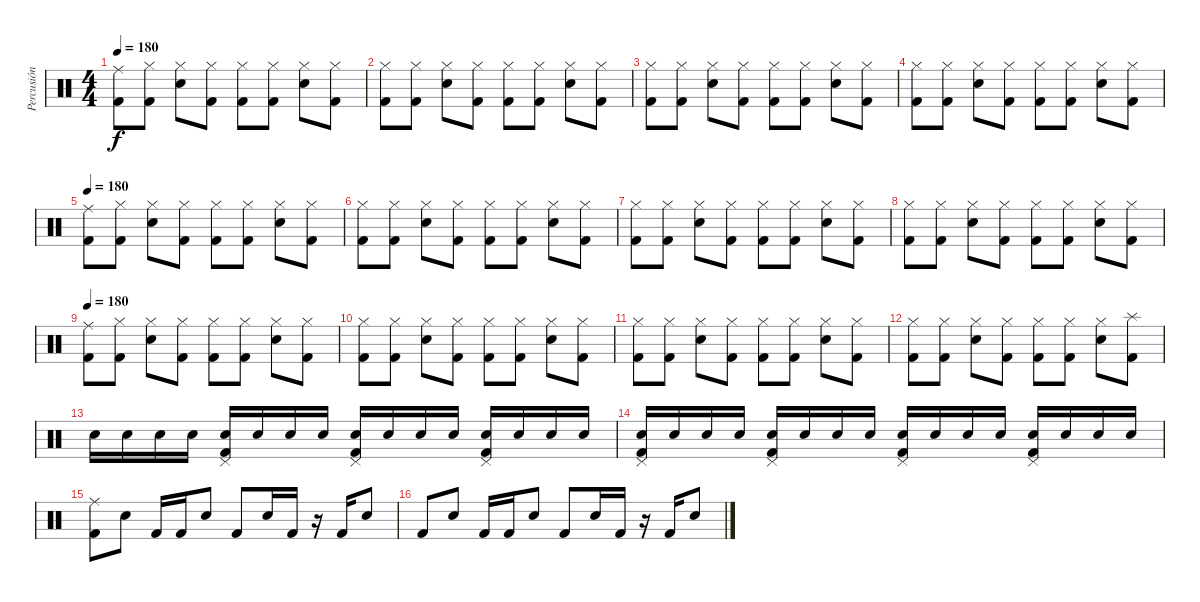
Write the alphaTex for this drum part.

\track ("Percusión" "Percusión") {instrument percussion}
\staff {score}
\articulation defaults
\ts (4 4)
\tempo 180
\clef neutral
\ks c
("Kick (hit) 2" "Ride (middle)").8{dy f} ("Kick (hit) 2" "Hi-Hat (closed)").8 ("Snare (hit) 2" "Hi-Hat (closed)").8 ("Kick (hit) 2" "Hi-Hat (closed)").8 ("Kick (hit) 2" "Hi-Hat (closed)").8 ("Kick (hit) 2" "Hi-Hat (closed)").8 ("Snare (hit) 2" "Hi-Hat (closed)").8 ("Kick (hit) 2" "Hi-Hat (closed)").8 |
("Kick (hit) 2" "Hi-Hat (closed)").8 ("Kick (hit) 2" "Hi-Hat (closed)").8 ("Snare (hit) 2" "Hi-Hat (closed)").8 ("Kick (hit) 2" "Hi-Hat (closed)").8 ("Kick (hit) 2" "Hi-Hat (closed)").8 ("Kick (hit) 2" "Hi-Hat (closed)").8 ("Snare (hit) 2" "Hi-Hat (closed)").8 ("Kick (hit) 2" "Hi-Hat (closed)").8 |
("Kick (hit) 2" "Hi-Hat (closed)").8 ("Kick (hit) 2" "Hi-Hat (closed)").8 ("Snare (hit) 2" "Hi-Hat (closed)").8 ("Kick (hit) 2" "Hi-Hat (closed)").8 ("Kick (hit) 2" "Hi-Hat (closed)").8 ("Kick (hit) 2" "Hi-Hat (closed)").8 ("Snare (hit) 2" "Hi-Hat (closed)").8 ("Kick (hit) 2" "Hi-Hat (closed)").8 |
("Kick (hit) 2" "Hi-Hat (closed)").8 ("Kick (hit) 2" "Hi-Hat (closed)").8 ("Snare (hit) 2" "Hi-Hat (closed)").8 ("Kick (hit) 2" "Hi-Hat (closed)").8 ("Kick (hit) 2" "Hi-Hat (closed)").8 ("Kick (hit) 2" "Hi-Hat (closed)").8 ("Snare (hit) 2" "Hi-Hat (closed)").8 ("Kick (hit) 2" "Hi-Hat (closed)").8 |
\tempo 180
("Kick (hit) 2" "Ride (middle)").8 ("Kick (hit) 2" "Hi-Hat (closed)").8 ("Snare (hit) 2" "Hi-Hat (closed)").8 ("Kick (hit) 2" "Hi-Hat (closed)").8 ("Kick (hit) 2" "Hi-Hat (closed)").8 ("Kick (hit) 2" "Hi-Hat (closed)").8 ("Snare (hit) 2" "Hi-Hat (closed)").8 ("Kick (hit) 2" "Hi-Hat (closed)").8 |
("Kick (hit) 2" "Hi-Hat (closed)").8 ("Kick (hit) 2" "Hi-Hat (closed)").8 ("Snare (hit) 2" "Hi-Hat (closed)").8 ("Kick (hit) 2" "Hi-Hat (closed)").8 ("Kick (hit) 2" "Hi-Hat (closed)").8 ("Kick (hit) 2" "Hi-Hat (closed)").8 ("Snare (hit) 2" "Hi-Hat (closed)").8 ("Kick (hit) 2" "Hi-Hat (closed)").8 |
("Kick (hit) 2" "Hi-Hat (closed)").8 ("Kick (hit) 2" "Hi-Hat (closed)").8 ("Snare (hit) 2" "Hi-Hat (closed)").8 ("Kick (hit) 2" "Hi-Hat (closed)").8 ("Kick (hit) 2" "Hi-Hat (closed)").8 ("Kick (hit) 2" "Hi-Hat (closed)").8 ("Snare (hit) 2" "Hi-Hat (closed)").8 ("Kick (hit) 2" "Hi-Hat (closed)").8 |
("Kick (hit) 2" "Hi-Hat (closed)").8 ("Kick (hit) 2" "Hi-Hat (closed)").8 ("Snare (hit) 2" "Hi-Hat (closed)").8 ("Kick (hit) 2" "Hi-Hat (closed)").8 ("Kick (hit) 2" "Hi-Hat (closed)").8 ("Kick (hit) 2" "Hi-Hat (closed)").8 ("Snare (hit) 2" "Hi-Hat (closed)").8 ("Kick (hit) 2" "Hi-Hat (closed)").8 |
\tempo 180
("Kick (hit) 2" "Ride (middle)").8 ("Kick (hit) 2" "Hi-Hat (closed)").8 ("Snare (hit) 2" "Hi-Hat (closed)").8 ("Kick (hit) 2" "Hi-Hat (closed)").8 ("Kick (hit) 2" "Hi-Hat (closed)").8 ("Kick (hit) 2" "Hi-Hat (closed)").8 ("Snare (hit) 2" "Hi-Hat (closed)").8 ("Kick (hit) 2" "Hi-Hat (closed)").8 |
("Kick (hit) 2" "Hi-Hat (closed)").8 ("Kick (hit) 2" "Hi-Hat (closed)").8 ("Snare (hit) 2" "Hi-Hat (closed)").8 ("Kick (hit) 2" "Hi-Hat (closed)").8 ("Kick (hit) 2" "Hi-Hat (closed)").8 ("Kick (hit) 2" "Hi-Hat (closed)").8 ("Snare (hit) 2" "Hi-Hat (closed)").8 ("Kick (hit) 2" "Hi-Hat (closed)").8 |
("Kick (hit) 2" "Hi-Hat (closed)").8 ("Kick (hit) 2" "Hi-Hat (closed)").8 ("Snare (hit) 2" "Hi-Hat (closed)").8 ("Kick (hit) 2" "Hi-Hat (closed)").8 ("Kick (hit) 2" "Hi-Hat (closed)").8 ("Kick (hit) 2" "Hi-Hat (closed)").8 ("Snare (hit) 2" "Hi-Hat (closed)").8 ("Kick (hit) 2" "Hi-Hat (closed)").8 |
("Kick (hit) 2" "Hi-Hat (closed)").8 ("Kick (hit) 2" "Hi-Hat (closed)").8 ("Snare (hit) 2" "Hi-Hat (closed)").8 ("Kick (hit) 2" "Hi-Hat (closed)").8 ("Kick (hit) 2" "Hi-Hat (closed)").8 ("Kick (hit) 2" "Hi-Hat (closed)").8 ("Snare (hit) 2" "Hi-Hat (closed)").8 ("Kick (hit) 2" "Splash (hit)").8 |
"Snare (hit) 2".16 "Snare (hit) 2".16 "Snare (hit) 2".16 "Snare (hit) 2".16 ("Snare (hit) 2" "Kick (hit) 2" "Pedal Hi-Hat (hit)").16 "Snare (hit) 2".16 "Snare (hit) 2".16 "Snare (hit) 2".16 ("Snare (hit) 2" "Kick (hit) 2" "Pedal Hi-Hat (hit)").16 "Snare (hit) 2".16 "Snare (hit) 2".16 "Snare (hit) 2".16 ("Snare (hit) 2" "Kick (hit) 2" "Pedal Hi-Hat (hit)").16 "Snare (hit) 2".16 "Snare (hit) 2".16 "Snare (hit) 2".16 |
("Snare (hit) 2" "Kick (hit) 2" "Pedal Hi-Hat (hit)").16 "Snare (hit) 2".16 "Snare (hit) 2".16 "Snare (hit) 2".16 ("Snare (hit) 2" "Kick (hit) 2" "Pedal Hi-Hat (hit)").16 "Snare (hit) 2".16 "Snare (hit) 2".16 "Snare (hit) 2".16 ("Snare (hit) 2" "Kick (hit) 2" "Pedal Hi-Hat (hit)").16 "Snare (hit) 2".16 "Snare (hit) 2".16 "Snare (hit) 2".16 ("Snare (hit) 2" "Kick (hit) 2" "Pedal Hi-Hat (hit)").16 "Snare (hit) 2".16 "Snare (hit) 2".16 "Snare (hit) 2".16 |
("Ride (middle)" "Kick (hit) 2").8 "Snare (hit) 2".8 "Kick (hit) 2".16 "Kick (hit) 2".16 "Snare (hit) 2".8 "Kick (hit) 2".8 "Snare (hit) 2".16 "Kick (hit) 2".16 r.16 "Kick (hit) 2".16 "Snare (hit) 2".8 |
"Kick (hit) 2".8 "Snare (hit) 2".8 "Kick (hit) 2".16 "Kick (hit) 2".16 "Snare (hit) 2".8 "Kick (hit) 2".8 "Snare (hit) 2".16 "Kick (hit) 2".16 r.16 "Kick (hit) 2".16 "Snare (hit) 2".8
